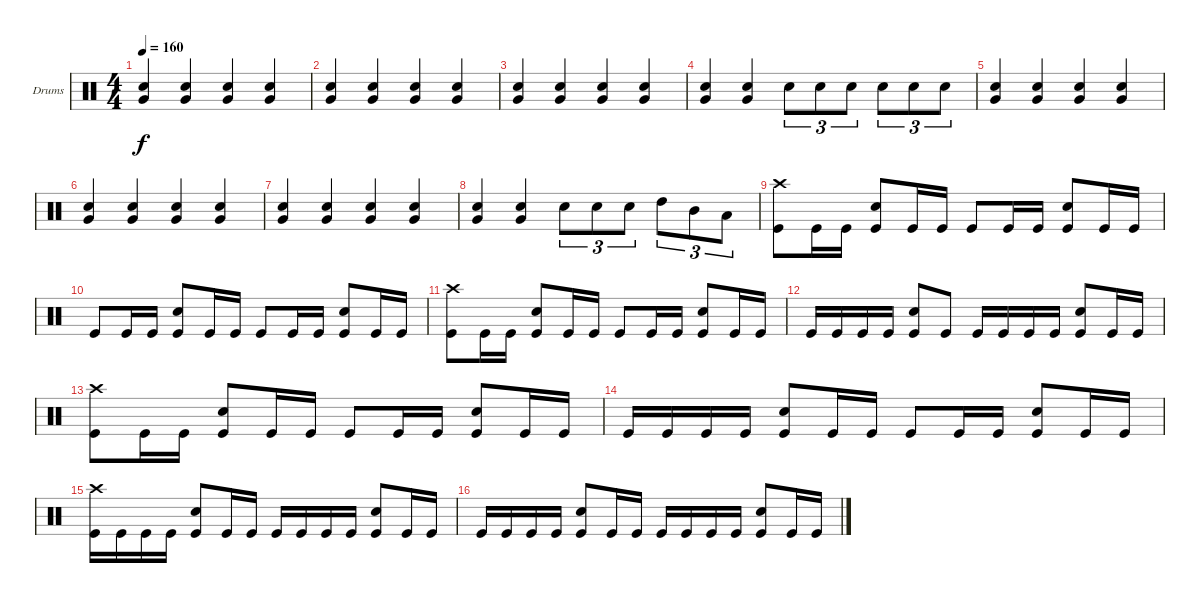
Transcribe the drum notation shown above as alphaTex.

\defaultSystemsLayout 4
\bracketExtendMode groupsimilarinstruments
\firstSystemTrackNameOrientation horizontal
\otherSystemsTrackNameOrientation horizontal
\track ("Drumkit" "Drums") {instrument percussion}
\staff {score}
\articulation defaults
\ts (4 4)
\tempo 160
\clef neutral
\scale
0.333333
\ks c
("Snare (hit) 2" "Very Low Tom (hit)").4{dy f} ("Snare (hit) 2" "Very Low Tom (hit)").4 ("Snare (hit) 2" "Very Low Tom (hit)").4 ("Snare (hit) 2" "Very Low Tom (hit)").4 |
\scale
0.333333 ("Snare (hit) 2" "Very Low Tom (hit)").4 ("Snare (hit) 2" "Very Low Tom (hit)").4 ("Snare (hit) 2" "Very Low Tom (hit)").4 ("Snare (hit) 2" "Very Low Tom (hit)").4 |
\scale
0.333333 ("Snare (hit) 2" "Very Low Tom (hit)").4 ("Snare (hit) 2" "Very Low Tom (hit)").4 ("Snare (hit) 2" "Very Low Tom (hit)").4 ("Snare (hit) 2" "Very Low Tom (hit)").4 |
\scale
0.333333 ("Snare (hit) 2" "Very Low Tom (hit)").4 ("Snare (hit) 2" "Very Low Tom (hit)").4 "Snare (hit) 2".8{tu (3 2)} "Snare (hit) 2".8{tu (3 2)} "Snare (hit) 2".8{tu (3 2)} "Snare (hit) 2".8{tu (3 2)} "Snare (hit) 2".8{tu (3 2)} "Snare (hit) 2".8{tu (3 2)} |
\scale
0.333333 ("Snare (hit) 2" "Very Low Tom (hit)").4 ("Snare (hit) 2" "Very Low Tom (hit)").4 ("Snare (hit) 2" "Very Low Tom (hit)").4 ("Snare (hit) 2" "Very Low Tom (hit)").4 |
\scale
0.333333 ("Snare (hit) 2" "Very Low Tom (hit)").4 ("Snare (hit) 2" "Very Low Tom (hit)").4 ("Snare (hit) 2" "Very Low Tom (hit)").4 ("Snare (hit) 2" "Very Low Tom (hit)").4 |
\scale
0.333333 ("Snare (hit) 2" "Very Low Tom (hit)").4 ("Snare (hit) 2" "Very Low Tom (hit)").4 ("Snare (hit) 2" "Very Low Tom (hit)").4 ("Snare (hit) 2" "Very Low Tom (hit)").4 |
\scale
0.333333 ("Snare (hit) 2" "Very Low Tom (hit)").4 ("Snare (hit) 2" "Very Low Tom (hit)").4 "Snare (hit) 2".8{tu (3 2)} "Snare (hit) 2".8{tu (3 2)} "Snare (hit) 2".8{tu (3 2)} "High Tom (hit)".8{tu (3 2)} "Mid Tom (hit)".8{tu (3 2)} "Low Tom (hit)".8{tu (3 2)} |
\scale
0.333333 ("Kick (hit)" "Crash high (hit)").8 "Kick (hit)".16 "Kick (hit)".16 ("Kick (hit)" "Snare (hit) 2").8 "Kick (hit)".16 "Kick (hit)".16 "Kick (hit)".8 "Kick (hit)".16 "Kick (hit)".16 ("Kick (hit)" "Snare (hit) 2").8 "Kick (hit)".16 "Kick (hit)".16 |
\scale
0.333333 "Kick (hit)".8 "Kick (hit)".16 "Kick (hit)".16 ("Kick (hit)" "Snare (hit) 2").8 "Kick (hit)".16 "Kick (hit)".16 "Kick (hit)".8 "Kick (hit)".16 "Kick (hit)".16 ("Kick (hit)" "Snare (hit) 2").8 "Kick (hit)".16 "Kick (hit)".16 |
\scale
0.333333 ("Kick (hit)" "Crash high (hit)").8 "Kick (hit)".16 "Kick (hit)".16 ("Kick (hit)" "Snare (hit) 2").8 "Kick (hit)".16 "Kick (hit)".16 "Kick (hit)".8 "Kick (hit)".16 "Kick (hit)".16 ("Kick (hit)" "Snare (hit) 2").8 "Kick (hit)".16 "Kick (hit)".16 |
\scale
0.333333 "Kick (hit)".16 "Kick (hit)".16 "Kick (hit)".16 "Kick (hit)".16 ("Kick (hit)" "Snare (hit) 2").8 "Kick (hit)".8 "Kick (hit)".16 "Kick (hit)".16 "Kick (hit)".16 "Kick (hit)".16 ("Kick (hit)" "Snare (hit) 2").8 "Kick (hit)".16 "Kick (hit)".16 |
\scale
0.333333 ("Kick (hit)" "Crash high (hit)").8 "Kick (hit)".16 "Kick (hit)".16 ("Kick (hit)" "Snare (hit) 2").8 "Kick (hit)".16 "Kick (hit)".16 "Kick (hit)".8 "Kick (hit)".16 "Kick (hit)".16 ("Kick (hit)" "Snare (hit) 2").8 "Kick (hit)".16 "Kick (hit)".16 |
\scale
0.333333 "Kick (hit)".16 "Kick (hit)".16 "Kick (hit)".16 "Kick (hit)".16 ("Kick (hit)" "Snare (hit) 2").8 "Kick (hit)".16 "Kick (hit)".16 "Kick (hit)".8 "Kick (hit)".16 "Kick (hit)".16 ("Kick (hit)" "Snare (hit) 2").8 "Kick (hit)".16 "Kick (hit)".16 |
\scale
0.333333 ("Kick (hit)" "Crash high (hit)").16 "Kick (hit)".16 "Kick (hit)".16 "Kick (hit)".16 ("Kick (hit)" "Snare (hit) 2").8 "Kick (hit)".16 "Kick (hit)".16 "Kick (hit)".16 "Kick (hit)".16 "Kick (hit)".16 "Kick (hit)".16 ("Kick (hit)" "Snare (hit) 2").8 "Kick (hit)".16 "Kick (hit)".16 |
\scale
0.333333 "Kick (hit)".16 "Kick (hit)".16 "Kick (hit)".16 "Kick (hit)".16 ("Kick (hit)" "Snare (hit) 2").8 "Kick (hit)".16 "Kick (hit)".16 "Kick (hit)".16 "Kick (hit)".16 "Kick (hit)".16 "Kick (hit)".16 ("Kick (hit)" "Snare (hit) 2").8 "Kick (hit)".16 "Kick (hit)".16
